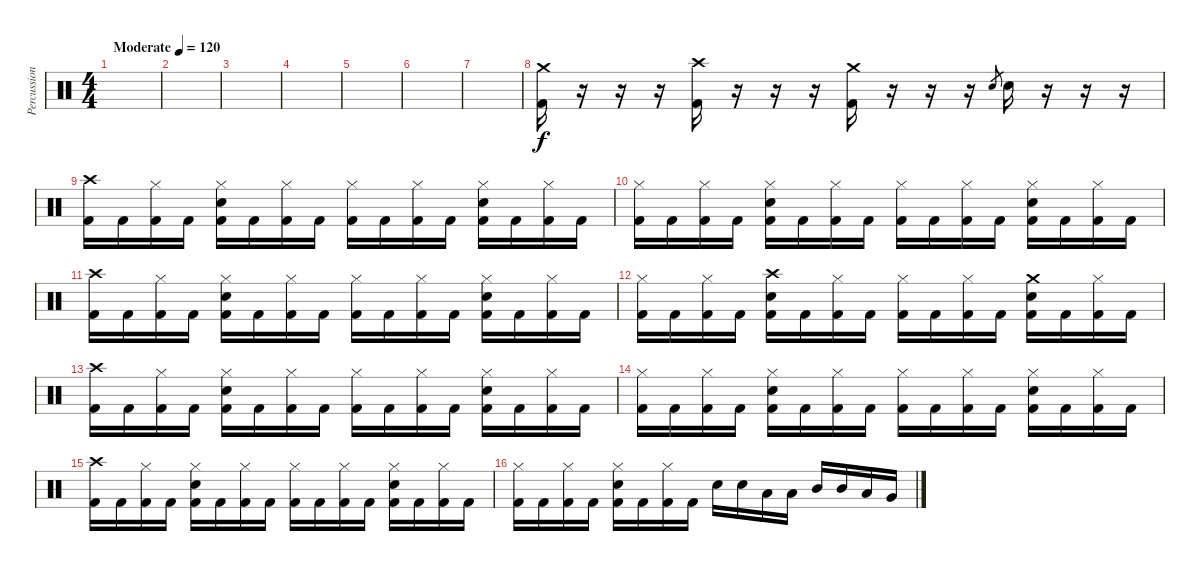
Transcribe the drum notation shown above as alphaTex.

\track ("Percussion" "Percussion") {instrument percussion}
\staff {score}
\articulation defaults
\ts (4 4)
\tempo (120 "Moderate")
\clef neutral
\ks c
|
|
|
|
|
|
|
("Crash medium (hit)" "Kick (hit) 2").16 r.16 r.16 r.16 ("Crash high (hit)" "Kick (hit) 2").16 r.16 r.16 r.16 ("Crash medium (hit)" "Kick (hit) 2").16 r.16 r.16 r.16 "Snare (hit) 2".8{gr} "Snare (hit) 2".16 r.16 r.16 r.16 |
("Crash high (hit)" "Kick (hit) 2").16 "Kick (hit) 2".16 ("Hi-Hat (closed)" "Kick (hit) 2").16 "Kick (hit) 2".16 ("Hi-Hat (closed)" "Snare (hit) 2" "Kick (hit) 2").16 "Kick (hit) 2".16 ("Hi-Hat (closed)" "Kick (hit) 2").16 "Kick (hit) 2".16 ("Hi-Hat (closed)" "Kick (hit) 2").16 "Kick (hit) 2".16 ("Hi-Hat (closed)" "Kick (hit) 2").16 "Kick (hit) 2".16 ("Hi-Hat (closed)" "Snare (hit) 2" "Kick (hit) 2").16 "Kick (hit) 2".16 ("Hi-Hat (closed)" "Kick (hit) 2").16 "Kick (hit) 2".16 |
("Hi-Hat (closed)" "Kick (hit) 2").16 "Kick (hit) 2".16 ("Hi-Hat (closed)" "Kick (hit) 2").16 "Kick (hit) 2".16 ("Hi-Hat (closed)" "Snare (hit) 2" "Kick (hit) 2").16 "Kick (hit) 2".16 ("Hi-Hat (closed)" "Kick (hit) 2").16 "Kick (hit) 2".16 ("Hi-Hat (closed)" "Kick (hit) 2").16 "Kick (hit) 2".16 ("Hi-Hat (closed)" "Kick (hit) 2").16 "Kick (hit) 2".16 ("Hi-Hat (closed)" "Snare (hit) 2" "Kick (hit) 2").16 "Kick (hit) 2".16 ("Hi-Hat (closed)" "Kick (hit) 2").16 "Kick (hit) 2".16 |
("Crash high (hit)" "Kick (hit) 2").16 "Kick (hit) 2".16 ("Hi-Hat (closed)" "Kick (hit) 2").16 "Kick (hit) 2".16 ("Hi-Hat (closed)" "Snare (hit) 2" "Kick (hit) 2").16 "Kick (hit) 2".16 ("Hi-Hat (closed)" "Kick (hit) 2").16 "Kick (hit) 2".16 ("Hi-Hat (closed)" "Kick (hit) 2").16 "Kick (hit) 2".16 ("Hi-Hat (closed)" "Kick (hit) 2").16 "Kick (hit) 2".16 ("Hi-Hat (closed)" "Snare (hit) 2" "Kick (hit) 2").16 "Kick (hit) 2".16 ("Hi-Hat (closed)" "Kick (hit) 2").16 "Kick (hit) 2".16 |
("Hi-Hat (closed)" "Kick (hit) 2").16 "Kick (hit) 2".16 ("Hi-Hat (closed)" "Kick (hit) 2").16 "Kick (hit) 2".16 ("Crash high (hit)" "Snare (hit) 2" "Kick (hit) 2").16 "Kick (hit) 2".16 ("Hi-Hat (closed)" "Kick (hit) 2").16 "Kick (hit) 2".16 ("Hi-Hat (closed)" "Kick (hit) 2").16 "Kick (hit) 2".16 ("Hi-Hat (closed)" "Kick (hit) 2").16 "Kick (hit) 2".16 ("Crash medium (hit)" "Snare (hit) 2" "Kick (hit) 2").16 "Kick (hit) 2".16 ("Hi-Hat (closed)" "Kick (hit) 2").16 "Kick (hit) 2".16 |
("Crash high (hit)" "Kick (hit) 2").16 "Kick (hit) 2".16 ("Hi-Hat (closed)" "Kick (hit) 2").16 "Kick (hit) 2".16 ("Hi-Hat (closed)" "Snare (hit) 2" "Kick (hit) 2").16 "Kick (hit) 2".16 ("Hi-Hat (closed)" "Kick (hit) 2").16 "Kick (hit) 2".16 ("Hi-Hat (closed)" "Kick (hit) 2").16 "Kick (hit) 2".16 ("Hi-Hat (closed)" "Kick (hit) 2").16 "Kick (hit) 2".16 ("Hi-Hat (closed)" "Snare (hit) 2" "Kick (hit) 2").16 "Kick (hit) 2".16 ("Hi-Hat (closed)" "Kick (hit) 2").16 "Kick (hit) 2".16 |
("Hi-Hat (closed)" "Kick (hit) 2").16 "Kick (hit) 2".16 ("Hi-Hat (closed)" "Kick (hit) 2").16 "Kick (hit) 2".16 ("Hi-Hat (closed)" "Snare (hit) 2" "Kick (hit) 2").16 "Kick (hit) 2".16 ("Hi-Hat (closed)" "Kick (hit) 2").16 "Kick (hit) 2".16 ("Hi-Hat (closed)" "Kick (hit) 2").16 "Kick (hit) 2".16 ("Hi-Hat (closed)" "Kick (hit) 2").16 "Kick (hit) 2".16 ("Hi-Hat (closed)" "Snare (hit) 2" "Kick (hit) 2").16 "Kick (hit) 2".16 ("Hi-Hat (closed)" "Kick (hit) 2").16 "Kick (hit) 2".16 |
("Crash high (hit)" "Kick (hit) 2").16 "Kick (hit) 2".16 ("Hi-Hat (closed)" "Kick (hit) 2").16 "Kick (hit) 2".16 ("Hi-Hat (closed)" "Snare (hit) 2" "Kick (hit) 2").16 "Kick (hit) 2".16 ("Hi-Hat (closed)" "Kick (hit) 2").16 "Kick (hit) 2".16 ("Hi-Hat (closed)" "Kick (hit) 2").16 "Kick (hit) 2".16 ("Hi-Hat (closed)" "Kick (hit) 2").16 "Kick (hit) 2".16 ("Hi-Hat (closed)" "Snare (hit) 2" "Kick (hit) 2").16 "Kick (hit) 2".16 ("Hi-Hat (closed)" "Kick (hit) 2").16 "Kick (hit) 2".16 |
("Hi-Hat (closed)" "Kick (hit) 2").16 "Kick (hit) 2".16 ("Hi-Hat (closed)" "Kick (hit) 2").16 "Kick (hit) 2".16 ("Hi-Hat (closed)" "Snare (hit) 2" "Kick (hit) 2").16 "Kick (hit) 2".16 ("Hi-Hat (closed)" "Kick (hit) 2").16 "Kick (hit) 2".16 "Snare (hit) 2".16 "Snare (hit) 2".16 "Low Tom (hit)".16 "Low Tom (hit)".16 "Mid Tom (hit)".16 "Mid Tom (hit)".16 "Low Tom (hit)".16 "Very Low Tom (hit)".16
